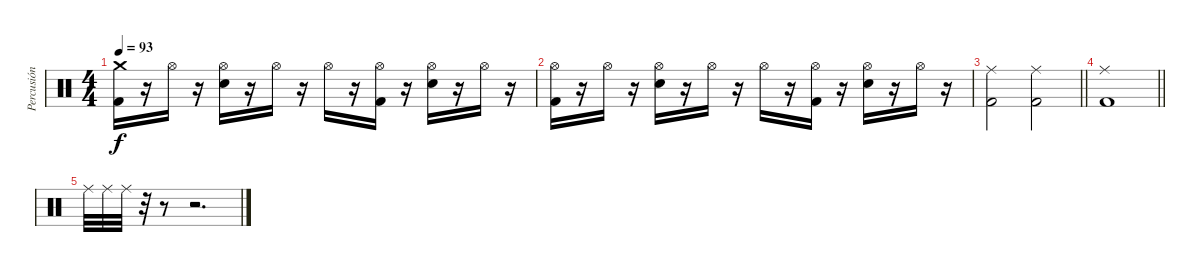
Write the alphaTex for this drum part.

\track ("Percusión" "Percusión") {instrument percussion}
\staff {score}
\articulation defaults
\ts (4 4)
\tempo 93
\clef neutral
\ks c
("Kick (hit) 2" "Crash medium (hit)").16{dy f} r.16 "Hi-Hat (open)".16 r.16 ("Hi-Hat (open)" "Electric Snare (hit)").16 r.16 "Hi-Hat (open)".16 r.16 "Hi-Hat (open)".16 r.16 ("Hi-Hat (open)" "Kick (hit) 2").16 r.16 ("Hi-Hat (open)" "Electric Snare (hit)").16 r.16 "Hi-Hat (open)".16 r.16 |
("Kick (hit) 2" "Hi-Hat (open)").16 r.16 "Hi-Hat (open)".16 r.16 ("Hi-Hat (open)" "Electric Snare (hit)").16 r.16 "Hi-Hat (open)".16 r.16 "Hi-Hat (open)".16 r.16 ("Hi-Hat (open)" "Kick (hit) 2").16 r.16 ("Hi-Hat (open)" "Electric Snare (hit)").16 r.16 "Hi-Hat (open)".16 r.16 |
\barLineRight lightlight
("Kick (hit) 2" "Ride (middle)").2 ("Ride (middle)" "Kick (hit) 2").2 |
\barLineRight lightlight
("Ride (middle)" "Kick (hit) 2").1 |
"Ride (middle)".32 "Ride (middle)".32 "Ride (middle)".32 r.32 r.8 r.2{d}
